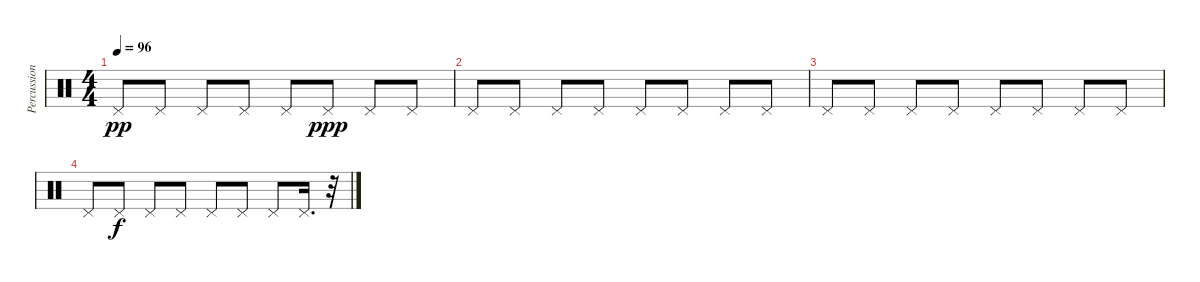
\track ("Percussion" "Percussion") {instrument percussion}
\staff {score}
\articulation defaults
\ts (4 4)
\tempo 96
\clef neutral
\ks c "Pedal Hi-Hat (hit)".8{dy pp} "Pedal Hi-Hat (hit)".8 "Pedal Hi-Hat (hit)".8 "Pedal Hi-Hat (hit)".8 "Pedal Hi-Hat (hit)".8 "Pedal Hi-Hat (hit)".8{dy ppp} "Pedal Hi-Hat (hit)".8 "Pedal Hi-Hat (hit)".8
|
"Pedal Hi-Hat (hit)".8 "Pedal Hi-Hat (hit)".8 "Pedal Hi-Hat (hit)".8 "Pedal Hi-Hat (hit)".8 "Pedal Hi-Hat (hit)".8 "Pedal Hi-Hat (hit)".8 "Pedal Hi-Hat (hit)".8 "Pedal Hi-Hat (hit)".8 |
"Pedal Hi-Hat (hit)".8 "Pedal Hi-Hat (hit)".8 "Pedal Hi-Hat (hit)".8 "Pedal Hi-Hat (hit)".8 "Pedal Hi-Hat (hit)".8 "Pedal Hi-Hat (hit)".8 "Pedal Hi-Hat (hit)".8 "Pedal Hi-Hat (hit)".8 |
"Pedal Hi-Hat (hit)".8 "Pedal Hi-Hat (hit)".8{dy f} "Pedal Hi-Hat (hit)".8 "Pedal Hi-Hat (hit)".8 "Pedal Hi-Hat (hit)".8 "Pedal Hi-Hat (hit)".8 "Pedal Hi-Hat (hit)".8 "Pedal Hi-Hat (hit)".16{d} r.32
